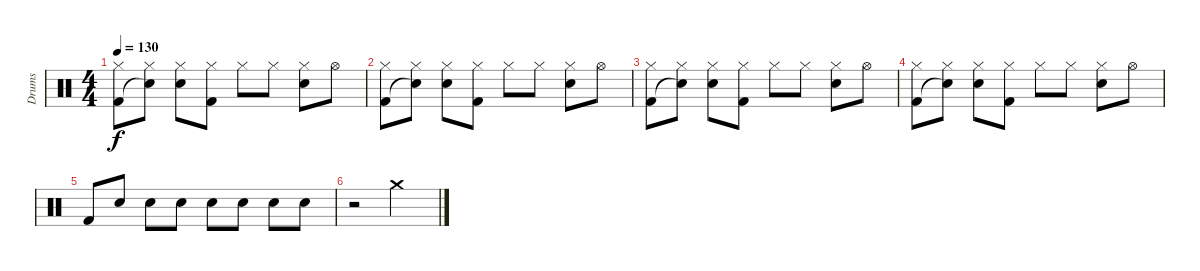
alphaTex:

\track ("Drums" "Drums") {instrument percussion}
\staff {score}
\articulation defaults
\ts (4 4)
\tempo 130
\clef neutral
\ks c
("Hi-Hat (closed)" "Kick (hit) 2").8{dy f} ("Hi-Hat (closed)" "Snare (hit)"{t}).8 ("Hi-Hat (closed)" "Electric Snare (hit)").8 ("Hi-Hat (closed)" "Kick (hit) 2").8 "Hi-Hat (closed)".8 "Hi-Hat (closed)".8 ("Hi-Hat (closed)" "Electric Snare (hit)").8 "Hi-Hat (open)".8 |
("Hi-Hat (closed)" "Kick (hit) 2").8 ("Hi-Hat (closed)" "Snare (hit)"{t}).8 ("Hi-Hat (closed)" "Electric Snare (hit)").8 ("Hi-Hat (closed)" "Kick (hit) 2").8 "Hi-Hat (closed)".8 "Hi-Hat (closed)".8 ("Hi-Hat (closed)" "Electric Snare (hit)").8 "Hi-Hat (open)".8 |
("Hi-Hat (closed)" "Kick (hit) 2").8 ("Hi-Hat (closed)" "Snare (hit)"{t}).8 ("Hi-Hat (closed)" "Electric Snare (hit)").8 ("Hi-Hat (closed)" "Kick (hit) 2").8 "Hi-Hat (closed)".8 "Hi-Hat (closed)".8 ("Hi-Hat (closed)" "Electric Snare (hit)").8 "Hi-Hat (open)".8 |
("Hi-Hat (closed)" "Kick (hit) 2").8 ("Hi-Hat (closed)" "Snare (hit)"{t}).8 ("Hi-Hat (closed)" "Electric Snare (hit)").8 ("Hi-Hat (closed)" "Kick (hit) 2").8 "Hi-Hat (closed)".8 "Hi-Hat (closed)".8 ("Hi-Hat (closed)" "Electric Snare (hit)").8 "Hi-Hat (open)".8 |
"Kick (hit) 2".8 "Electric Snare (hit)".8 "Electric Snare (hit)".8 "Electric Snare (hit)".8 "Electric Snare (hit)".8 "Electric Snare (hit)".8 "Electric Snare (hit)".8 "Electric Snare (hit)".8 |
r.2 "Crash medium (hit)".2
